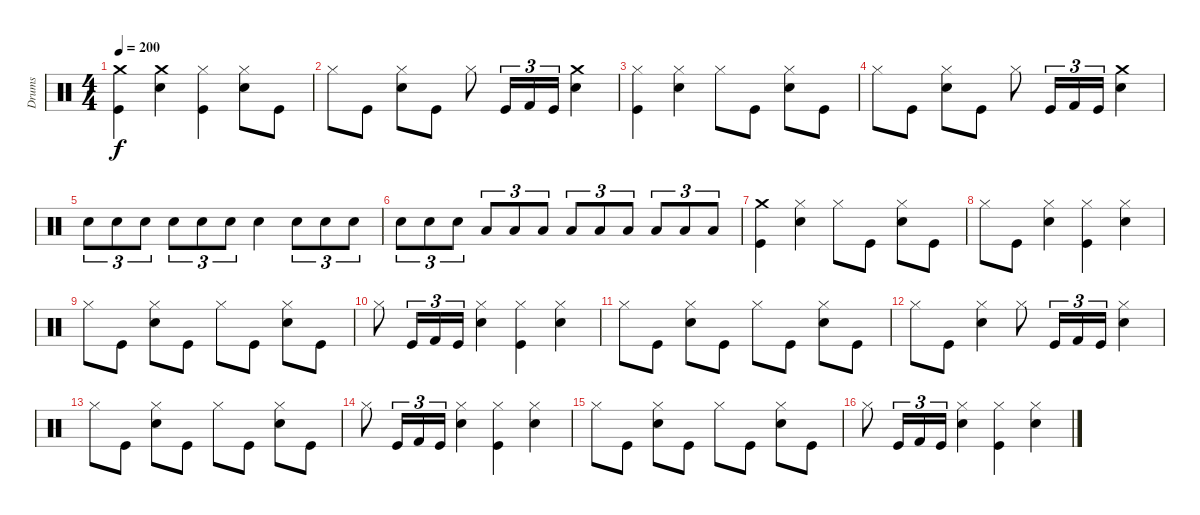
\track ("Drums" "Drums") {instrument percussion}
\staff {score}
\articulation defaults
\ts (4 4)
\tempo 200
\clef neutral
\ks c
("Kick (hit)" "Crash medium (hit)").4{dy f} ("Snare (hit) 2" "Crash medium (hit)").4 ("Hi-Hat (closed)" "Kick (hit)").4 ("Snare (hit) 2" "Hi-Hat (closed)").8 "Kick (hit)".8 |
"Hi-Hat (closed)".8 "Kick (hit)".8 ("Snare (hit) 2" "Hi-Hat (closed)").8 "Kick (hit)".8 "Hi-Hat (closed)".8 "Kick (hit)".16{tu (3 2)} "Kick (hit) 2".16{tu (3 2)} "Kick (hit)".16{tu (3 2)} ("Crash medium (hit)" "Snare (hit) 2").4 |
("Hi-Hat (closed)" "Kick (hit)").4 ("Snare (hit) 2" "Hi-Hat (closed)").4 "Hi-Hat (closed)".8 "Kick (hit)".8 ("Snare (hit) 2" "Hi-Hat (closed)").8 "Kick (hit)".8 |
"Hi-Hat (closed)".8 "Kick (hit)".8 ("Snare (hit) 2" "Hi-Hat (closed)").8 "Kick (hit)".8 "Hi-Hat (closed)".8 "Kick (hit)".16{tu (3 2)} "Kick (hit) 2".16{tu (3 2)} "Kick (hit)".16{tu (3 2)} ("Crash medium (hit)" "Snare (hit) 2").4 |
"Snare (hit) 2".8{tu (3 2)} "Snare (hit) 2".8{tu (3 2)} "Snare (hit) 2".8{tu (3 2)} "Snare (hit) 2".8{tu (3 2)} "Snare (hit) 2".8{tu (3 2)} "Snare (hit) 2".8{tu (3 2)} "Snare (hit) 2".4 "Snare (hit) 2".8{tu (3 2)} "Snare (hit) 2".8{tu (3 2)} "Snare (hit) 2".8{tu (3 2)} |
"Snare (hit) 2".8{tu (3 2)} "Snare (hit) 2".8{tu (3 2)} "Snare (hit) 2".8{tu (3 2)} "Low Tom (hit)".8{tu (3 2)} "Low Tom (hit)".8{tu (3 2)} "Low Tom (hit)".8{tu (3 2)} "Low Tom (hit)".8{tu (3 2)} "Low Tom (hit)".8{tu (3 2)} "Low Tom (hit)".8{tu (3 2)} "Low Tom (hit)".8{tu (3 2)} "Low Tom (hit)".8{tu (3 2)} "Low Tom (hit)".8{tu (3 2)} |
("Crash medium (hit)" "Kick (hit)").4 ("Hi-Hat (closed)" "Snare (hit) 2").4 "Hi-Hat (closed)".8 "Kick (hit)".8 ("Snare (hit) 2" "Hi-Hat (closed)").8 "Kick (hit)".8 |
"Hi-Hat (closed)".8 "Kick (hit)".8 ("Snare (hit) 2" "Hi-Hat (closed)").4 ("Hi-Hat (closed)" "Kick (hit)").4 ("Snare (hit) 2" "Hi-Hat (closed)").4 |
"Hi-Hat (closed)".8 "Kick (hit)".8 ("Snare (hit) 2" "Hi-Hat (closed)").8 "Kick (hit)".8 "Hi-Hat (closed)".8 "Kick (hit)".8 ("Snare (hit) 2" "Hi-Hat (closed)").8 "Kick (hit)".8 |
"Hi-Hat (closed)".8 "Kick (hit)".16{tu (3 2)} "Kick (hit) 2".16{tu (3 2)} "Kick (hit)".16{tu (3 2)} ("Snare (hit) 2" "Hi-Hat (closed)").4 ("Kick (hit)" "Hi-Hat (closed)").4 ("Hi-Hat (closed)" "Snare (hit) 2").4 |
"Hi-Hat (closed)".8 "Kick (hit)".8 ("Snare (hit) 2" "Hi-Hat (closed)").8 "Kick (hit)".8 "Hi-Hat (closed)".8 "Kick (hit)".8 ("Snare (hit) 2" "Hi-Hat (closed)").8 "Kick (hit)".8 |
"Hi-Hat (closed)".8 "Kick (hit)".8 ("Snare (hit) 2" "Hi-Hat (closed)").4 "Hi-Hat (closed)".8 "Kick (hit)".16{tu (3 2)} "Kick (hit) 2".16{tu (3 2)} "Kick (hit)".16{tu (3 2)} ("Snare (hit) 2" "Hi-Hat (closed)").4 |
"Hi-Hat (closed)".8 "Kick (hit)".8 ("Snare (hit) 2" "Hi-Hat (closed)").8 "Kick (hit)".8 "Hi-Hat (closed)".8 "Kick (hit)".8 ("Snare (hit) 2" "Hi-Hat (closed)").8 "Kick (hit)".8 |
"Hi-Hat (closed)".8 "Kick (hit)".16{tu (3 2)} "Kick (hit) 2".16{tu (3 2)} "Kick (hit)".16{tu (3 2)} ("Snare (hit) 2" "Hi-Hat (closed)").4 ("Kick (hit)" "Hi-Hat (closed)").4 ("Hi-Hat (closed)" "Snare (hit) 2").4 |
"Hi-Hat (closed)".8 "Kick (hit)".8 ("Snare (hit) 2" "Hi-Hat (closed)").8 "Kick (hit)".8 "Hi-Hat (closed)".8 "Kick (hit)".8 ("Snare (hit) 2" "Hi-Hat (closed)").8 "Kick (hit)".8 |
"Hi-Hat (closed)".8 "Kick (hit)".16{tu (3 2)} "Kick (hit) 2".16{tu (3 2)} "Kick (hit)".16{tu (3 2)} ("Snare (hit) 2" "Hi-Hat (closed)").4 ("Kick (hit)" "Hi-Hat (closed)").4 ("Hi-Hat (closed)" "Snare (hit) 2").4
